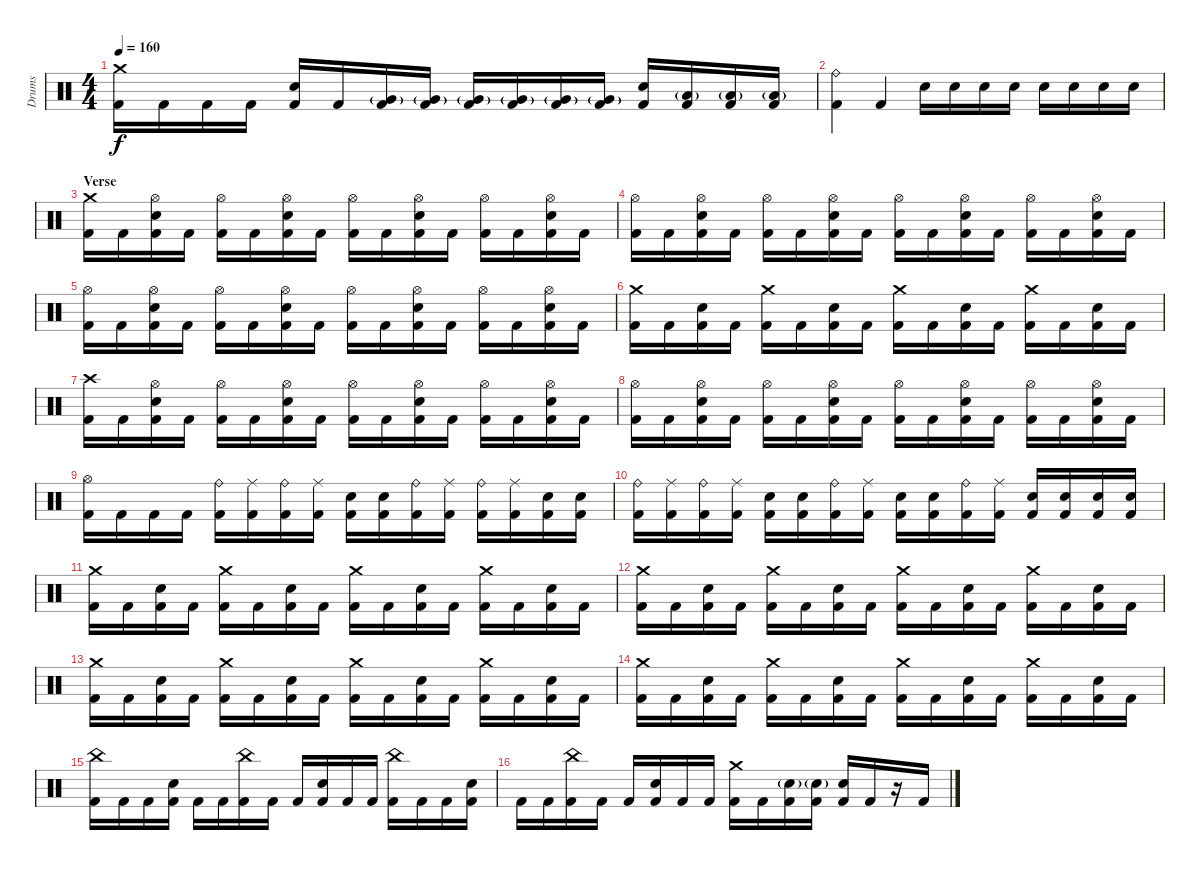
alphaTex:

\track ("Drums" "Drums") {instrument percussion}
\staff {score}
\articulation defaults
\ts (4 4)
\tempo 160
\clef neutral
\ks c
("Crash medium (hit)" "Kick (hit) 2").16{dy f} "Kick (hit) 2".16 "Kick (hit) 2".16 "Kick (hit) 2".16 ("Snare (hit) 2" "Kick (hit) 2").16 "Kick (hit) 2".16 ("Very Low Tom (hit)"{g} "Kick (hit) 2").16 ("Very Low Tom (hit)"{g} "Kick (hit) 2").16 ("Very Low Tom (hit)"{g} "Kick (hit) 2").16 ("Very Low Tom (hit)"{g} "Kick (hit) 2").16 ("Very Low Tom (hit)"{g} "Kick (hit) 2").16 ("Very Low Tom (hit)"{g} "Kick (hit) 2").16 ("Snare (hit) 2" "Kick (hit) 2").16 ("Low Tom (hit)"{g} "Kick (hit) 2").16 ("Low Tom (hit)"{g} "Kick (hit) 2").16 ("Low Tom (hit)"{g} "Kick (hit) 2").16 |
("Ride (bell)" "Kick (hit) 2").4 "Kick (hit) 2".4 "Snare (hit) 2".16 "Snare (hit) 2".16 "Snare (hit) 2".16 "Snare (hit) 2".16 "Snare (hit) 2".16 "Snare (hit) 2".16 "Snare (hit) 2".16 "Snare (hit) 2".16 |
\section ("" "Verse")
("Crash medium (hit)" "Kick (hit) 2").16 "Kick (hit) 2".16 ("Hi-Hat (open)" "Snare (hit) 2" "Kick (hit) 2").16 "Kick (hit) 2".16 ("Hi-Hat (open)" "Kick (hit) 2").16 "Kick (hit) 2".16 ("Hi-Hat (open)" "Snare (hit) 2" "Kick (hit) 2").16 "Kick (hit) 2".16 ("Hi-Hat (open)" "Kick (hit) 2").16 "Kick (hit) 2".16 ("Hi-Hat (open)" "Snare (hit) 2" "Kick (hit) 2").16 "Kick (hit) 2".16 ("Hi-Hat (open)" "Kick (hit) 2").16 "Kick (hit) 2".16 ("Hi-Hat (open)" "Snare (hit) 2" "Kick (hit) 2").16 "Kick (hit) 2".16 |
("Hi-Hat (open)" "Kick (hit) 2").16 "Kick (hit) 2".16 ("Hi-Hat (open)" "Snare (hit) 2" "Kick (hit) 2").16 "Kick (hit) 2".16 ("Hi-Hat (open)" "Kick (hit) 2").16 "Kick (hit) 2".16 ("Hi-Hat (open)" "Snare (hit) 2" "Kick (hit) 2").16 "Kick (hit) 2".16 ("Hi-Hat (open)" "Kick (hit) 2").16 "Kick (hit) 2".16 ("Hi-Hat (open)" "Snare (hit) 2" "Kick (hit) 2").16 "Kick (hit) 2".16 ("Hi-Hat (open)" "Kick (hit) 2").16 "Kick (hit) 2".16 ("Hi-Hat (open)" "Snare (hit) 2" "Kick (hit) 2").16 "Kick (hit) 2".16 |
("Hi-Hat (open)" "Kick (hit) 2").16 "Kick (hit) 2".16 ("Hi-Hat (open)" "Snare (hit) 2" "Kick (hit) 2").16 "Kick (hit) 2".16 ("Hi-Hat (open)" "Kick (hit) 2").16 "Kick (hit) 2".16 ("Hi-Hat (open)" "Snare (hit) 2" "Kick (hit) 2").16 "Kick (hit) 2".16 ("Hi-Hat (open)" "Kick (hit) 2").16 "Kick (hit) 2".16 ("Hi-Hat (open)" "Snare (hit) 2" "Kick (hit) 2").16 "Kick (hit) 2".16 ("Hi-Hat (open)" "Kick (hit) 2").16 "Kick (hit) 2".16 ("Hi-Hat (open)" "Snare (hit) 2" "Kick (hit) 2").16 "Kick (hit) 2".16 |
("Crash medium (hit)" "Kick (hit) 2").16 "Kick (hit) 2".16 ("Snare (hit) 2" "Kick (hit) 2").16 "Kick (hit) 2".16 ("Crash medium (hit)" "Kick (hit) 2").16 "Kick (hit) 2".16 ("Snare (hit) 2" "Kick (hit) 2").16 "Kick (hit) 2".16 ("Crash medium (hit)" "Kick (hit) 2").16 "Kick (hit) 2".16 ("Snare (hit) 2" "Kick (hit) 2").16 "Kick (hit) 2".16 ("Crash medium (hit)" "Kick (hit) 2").16 "Kick (hit) 2".16 ("Snare (hit) 2" "Kick (hit) 2").16 "Kick (hit) 2".16 |
("Crash high (hit)" "Kick (hit) 2").16 "Kick (hit) 2".16 ("Hi-Hat (open)" "Snare (hit) 2" "Kick (hit) 2").16 "Kick (hit) 2".16 ("Hi-Hat (open)" "Kick (hit) 2").16 "Kick (hit) 2".16 ("Hi-Hat (open)" "Snare (hit) 2" "Kick (hit) 2").16 "Kick (hit) 2".16 ("Hi-Hat (open)" "Kick (hit) 2").16 "Kick (hit) 2".16 ("Hi-Hat (open)" "Snare (hit) 2" "Kick (hit) 2").16 "Kick (hit) 2".16 ("Hi-Hat (open)" "Kick (hit) 2").16 "Kick (hit) 2".16 ("Hi-Hat (open)" "Snare (hit) 2" "Kick (hit) 2").16 "Kick (hit) 2".16 |
("Hi-Hat (open)" "Kick (hit) 2").16 "Kick (hit) 2".16 ("Hi-Hat (open)" "Snare (hit) 2" "Kick (hit) 2").16 "Kick (hit) 2".16 ("Hi-Hat (open)" "Kick (hit) 2").16 "Kick (hit) 2".16 ("Hi-Hat (open)" "Snare (hit) 2" "Kick (hit) 2").16 "Kick (hit) 2".16 ("Hi-Hat (open)" "Kick (hit) 2").16 "Kick (hit) 2".16 ("Hi-Hat (open)" "Snare (hit) 2" "Kick (hit) 2").16 "Kick (hit) 2".16 ("Hi-Hat (open)" "Kick (hit) 2").16 "Kick (hit) 2".16 ("Hi-Hat (open)" "Snare (hit) 2" "Kick (hit) 2").16 "Kick (hit) 2".16 |
("Hi-Hat (open)" "Kick (hit) 2").16 "Kick (hit) 2".16 "Kick (hit) 2".16 "Kick (hit) 2".16 ("Ride (bell)" "Kick (hit) 2").16 ("Ride (middle)" "Kick (hit) 2").16 ("Ride (bell)" "Kick (hit) 2").16 ("Ride (middle)" "Kick (hit) 2").16 ("Snare (hit) 2" "Kick (hit) 2").16 ("Snare (hit) 2" "Kick (hit) 2").16 ("Ride (bell)" "Kick (hit) 2").16 ("Ride (middle)" "Kick (hit) 2").16 ("Ride (bell)" "Kick (hit) 2").16 ("Ride (middle)" "Kick (hit) 2").16 ("Snare (hit) 2" "Kick (hit) 2").16 ("Snare (hit) 2" "Kick (hit) 2").16 |
("Ride (bell)" "Kick (hit) 2").16 ("Ride (middle)" "Kick (hit) 2").16 ("Ride (bell)" "Kick (hit) 2").16 ("Ride (middle)" "Kick (hit) 2").16 ("Snare (hit) 2" "Kick (hit) 2").16 ("Snare (hit) 2" "Kick (hit) 2").16 ("Ride (bell)" "Kick (hit) 2").16 ("Ride (middle)" "Kick (hit) 2").16 ("Snare (hit) 2" "Kick (hit) 2").16 ("Snare (hit) 2" "Kick (hit) 2").16 ("Ride (bell)" "Kick (hit) 2").16 ("Ride (middle)" "Kick (hit) 2").16 ("Snare (hit) 2" "Kick (hit) 2").16 ("Snare (hit) 2" "Kick (hit) 2").16 ("Snare (hit) 2" "Kick (hit) 2").16 ("Snare (hit) 2" "Kick (hit) 2").16 |
("Crash medium (hit)" "Kick (hit) 2").16 "Kick (hit) 2".16 ("Snare (hit) 2" "Kick (hit) 2").16 "Kick (hit) 2".16 ("Crash medium (hit)" "Kick (hit) 2").16 "Kick (hit) 2".16 ("Snare (hit) 2" "Kick (hit) 2").16 "Kick (hit) 2".16 ("Crash medium (hit)" "Kick (hit) 2").16 "Kick (hit) 2".16 ("Snare (hit) 2" "Kick (hit) 2").16 "Kick (hit) 2".16 ("Crash medium (hit)" "Kick (hit) 2").16 "Kick (hit) 2".16 ("Snare (hit) 2" "Kick (hit) 2").16 "Kick (hit) 2".16 |
("Crash medium (hit)" "Kick (hit) 2").16 "Kick (hit) 2".16 ("Snare (hit) 2" "Kick (hit) 2").16 "Kick (hit) 2".16 ("Crash medium (hit)" "Kick (hit) 2").16 "Kick (hit) 2".16 ("Snare (hit) 2" "Kick (hit) 2").16 "Kick (hit) 2".16 ("Crash medium (hit)" "Kick (hit) 2").16 "Kick (hit) 2".16 ("Snare (hit) 2" "Kick (hit) 2").16 "Kick (hit) 2".16 ("Crash medium (hit)" "Kick (hit) 2").16 "Kick (hit) 2".16 ("Snare (hit) 2" "Kick (hit) 2").16 "Kick (hit) 2".16 |
("Crash medium (hit)" "Kick (hit) 2").16 "Kick (hit) 2".16 ("Snare (hit) 2" "Kick (hit) 2").16 "Kick (hit) 2".16 ("Crash medium (hit)" "Kick (hit) 2").16 "Kick (hit) 2".16 ("Snare (hit) 2" "Kick (hit) 2").16 "Kick (hit) 2".16 ("Crash medium (hit)" "Kick (hit) 2").16 "Kick (hit) 2".16 ("Snare (hit) 2" "Kick (hit) 2").16 "Kick (hit) 2".16 ("Crash medium (hit)" "Kick (hit) 2").16 "Kick (hit) 2".16 ("Snare (hit) 2" "Kick (hit) 2").16 "Kick (hit) 2".16 |
("Crash medium (hit)" "Kick (hit) 2").16 "Kick (hit) 2".16 ("Snare (hit) 2" "Kick (hit) 2").16 "Kick (hit) 2".16 ("Crash medium (hit)" "Kick (hit) 2").16 "Kick (hit) 2".16 ("Snare (hit) 2" "Kick (hit) 2").16 "Kick (hit) 2".16 ("Crash medium (hit)" "Kick (hit) 2").16 "Kick (hit) 2".16 ("Snare (hit) 2" "Kick (hit) 2").16 "Kick (hit) 2".16 ("Crash medium (hit)" "Kick (hit) 2").16 "Kick (hit) 2".16 ("Snare (hit) 2" "Kick (hit) 2").16 "Kick (hit) 2".16 |
("China (hit)" "Kick (hit) 2").16 "Kick (hit) 2".16 "Kick (hit) 2".16 ("Snare (hit) 2" "Kick (hit) 2").16 "Kick (hit) 2".16 "Kick (hit) 2".16 ("China (hit)" "Kick (hit) 2").16 "Kick (hit) 2".16 "Kick (hit) 2".16 ("Snare (hit) 2" "Kick (hit) 2").16 "Kick (hit) 2".16 "Kick (hit) 2".16 ("China (hit)" "Kick (hit) 2").16 "Kick (hit) 2".16 "Kick (hit) 2".16 ("Snare (hit) 2" "Kick (hit) 2").16 |
"Kick (hit) 2".16 "Kick (hit) 2".16 ("China (hit)" "Kick (hit) 2").16 "Kick (hit) 2".16 "Kick (hit) 2".16 ("Snare (hit) 2" "Kick (hit) 2").16 "Kick (hit) 2".16 "Kick (hit) 2".16 ("Crash medium (hit)" "Kick (hit) 2").16 "Kick (hit) 2".16 ("Snare (hit) 2"{g} "Kick (hit) 2").16 ("Snare (hit) 2"{g} "Kick (hit) 2").16 ("Snare (hit) 2" "Kick (hit) 2").16 "Kick (hit) 2".16 r.16 "Kick (hit) 2".16
